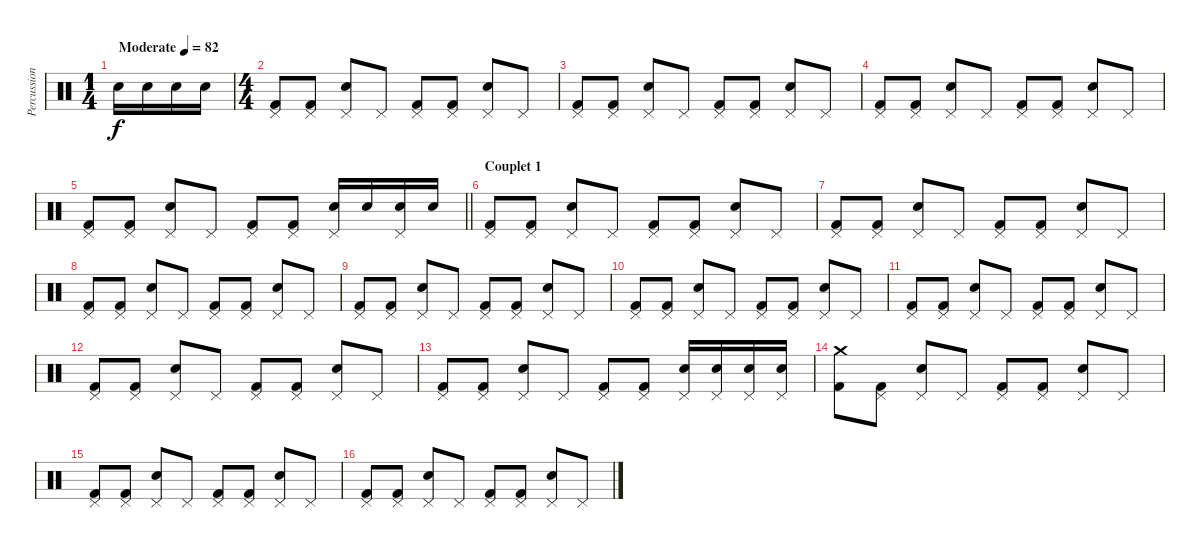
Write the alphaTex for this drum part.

\track ("Percussions" "Percussion") {instrument percussion}
\staff
\articulation defaults
\ts (1 4)
\tempo (82 "Moderate")
\clef neutral
\ks c "Electric Snare (hit)".16{dy f} "Electric Snare (hit)".16 "Electric Snare (hit)".16 "Electric Snare (hit)".16
|
\ts (4 4)
("Pedal Hi-Hat (hit)" "Kick (hit) 2").8 ("Pedal Hi-Hat (hit)" "Kick (hit) 2").8 ("Pedal Hi-Hat (hit)" "Electric Snare (hit)").8 "Pedal Hi-Hat (hit)".8 ("Pedal Hi-Hat (hit)" "Kick (hit) 2").8 ("Pedal Hi-Hat (hit)" "Kick (hit) 2").8 ("Pedal Hi-Hat (hit)" "Electric Snare (hit)").8 "Pedal Hi-Hat (hit)".8 |
("Pedal Hi-Hat (hit)" "Kick (hit) 2").8 ("Pedal Hi-Hat (hit)" "Kick (hit) 2").8 ("Pedal Hi-Hat (hit)" "Electric Snare (hit)").8 "Pedal Hi-Hat (hit)".8 ("Pedal Hi-Hat (hit)" "Kick (hit) 2").8 ("Pedal Hi-Hat (hit)" "Kick (hit) 2").8 ("Pedal Hi-Hat (hit)" "Electric Snare (hit)").8 "Pedal Hi-Hat (hit)".8 |
("Pedal Hi-Hat (hit)" "Kick (hit) 2").8 ("Pedal Hi-Hat (hit)" "Kick (hit) 2").8 ("Pedal Hi-Hat (hit)" "Electric Snare (hit)").8 "Pedal Hi-Hat (hit)".8 ("Pedal Hi-Hat (hit)" "Kick (hit) 2").8 ("Pedal Hi-Hat (hit)" "Kick (hit) 2").8 ("Pedal Hi-Hat (hit)" "Electric Snare (hit)").8 "Pedal Hi-Hat (hit)".8 |
\barLineRight lightlight
("Pedal Hi-Hat (hit)" "Kick (hit) 2").8 ("Pedal Hi-Hat (hit)" "Kick (hit) 2").8 ("Pedal Hi-Hat (hit)" "Electric Snare (hit)").8 "Pedal Hi-Hat (hit)".8 ("Pedal Hi-Hat (hit)" "Kick (hit) 2").8 ("Pedal Hi-Hat (hit)" "Kick (hit) 2").8 ("Pedal Hi-Hat (hit)" "Electric Snare (hit)").16 "Electric Snare (hit)".16 ("Pedal Hi-Hat (hit)" "Electric Snare (hit)").16 "Electric Snare (hit)".16 |
\section ("" "Couplet 1")
("Pedal Hi-Hat (hit)" "Kick (hit) 2").8 ("Pedal Hi-Hat (hit)" "Kick (hit) 2").8 ("Pedal Hi-Hat (hit)" "Electric Snare (hit)").8 "Pedal Hi-Hat (hit)".8 ("Pedal Hi-Hat (hit)" "Kick (hit) 2").8 ("Pedal Hi-Hat (hit)" "Kick (hit) 2").8 ("Pedal Hi-Hat (hit)" "Electric Snare (hit)").8 "Pedal Hi-Hat (hit)".8 |
("Pedal Hi-Hat (hit)" "Kick (hit) 2").8 ("Pedal Hi-Hat (hit)" "Kick (hit) 2").8 ("Pedal Hi-Hat (hit)" "Electric Snare (hit)").8 "Pedal Hi-Hat (hit)".8 ("Pedal Hi-Hat (hit)" "Kick (hit) 2").8 ("Pedal Hi-Hat (hit)" "Kick (hit) 2").8 ("Pedal Hi-Hat (hit)" "Electric Snare (hit)").8 "Pedal Hi-Hat (hit)".8 |
("Pedal Hi-Hat (hit)" "Kick (hit) 2").8 ("Pedal Hi-Hat (hit)" "Kick (hit) 2").8 ("Pedal Hi-Hat (hit)" "Electric Snare (hit)").8 "Pedal Hi-Hat (hit)".8 ("Pedal Hi-Hat (hit)" "Kick (hit) 2").8 ("Pedal Hi-Hat (hit)" "Kick (hit) 2").8 ("Pedal Hi-Hat (hit)" "Electric Snare (hit)").8 "Pedal Hi-Hat (hit)".8 |
("Pedal Hi-Hat (hit)" "Kick (hit) 2").8 ("Pedal Hi-Hat (hit)" "Kick (hit) 2").8 ("Pedal Hi-Hat (hit)" "Electric Snare (hit)").8 "Pedal Hi-Hat (hit)".8 ("Pedal Hi-Hat (hit)" "Kick (hit) 2").8 ("Pedal Hi-Hat (hit)" "Kick (hit) 2").8 ("Pedal Hi-Hat (hit)" "Electric Snare (hit)").8 "Pedal Hi-Hat (hit)".8 |
("Pedal Hi-Hat (hit)" "Kick (hit) 2").8 ("Pedal Hi-Hat (hit)" "Kick (hit) 2").8 ("Pedal Hi-Hat (hit)" "Electric Snare (hit)").8 "Pedal Hi-Hat (hit)".8 ("Pedal Hi-Hat (hit)" "Kick (hit) 2").8 ("Pedal Hi-Hat (hit)" "Kick (hit) 2").8 ("Pedal Hi-Hat (hit)" "Electric Snare (hit)").8 "Pedal Hi-Hat (hit)".8 |
("Pedal Hi-Hat (hit)" "Kick (hit) 2").8 ("Pedal Hi-Hat (hit)" "Kick (hit) 2").8 ("Pedal Hi-Hat (hit)" "Electric Snare (hit)").8 "Pedal Hi-Hat (hit)".8 ("Pedal Hi-Hat (hit)" "Kick (hit) 2").8 ("Pedal Hi-Hat (hit)" "Kick (hit) 2").8 ("Pedal Hi-Hat (hit)" "Electric Snare (hit)").8 "Pedal Hi-Hat (hit)".8 |
("Pedal Hi-Hat (hit)" "Kick (hit) 2").8 ("Pedal Hi-Hat (hit)" "Kick (hit) 2").8 ("Pedal Hi-Hat (hit)" "Electric Snare (hit)").8 "Pedal Hi-Hat (hit)".8 ("Pedal Hi-Hat (hit)" "Kick (hit) 2").8 ("Pedal Hi-Hat (hit)" "Kick (hit) 2").8 ("Pedal Hi-Hat (hit)" "Electric Snare (hit)").8 "Pedal Hi-Hat (hit)".8 |
("Pedal Hi-Hat (hit)" "Kick (hit) 2").8 ("Pedal Hi-Hat (hit)" "Kick (hit) 2").8 ("Pedal Hi-Hat (hit)" "Electric Snare (hit)").8 "Pedal Hi-Hat (hit)".8 ("Pedal Hi-Hat (hit)" "Kick (hit) 2").8 ("Pedal Hi-Hat (hit)" "Kick (hit) 2").8 ("Pedal Hi-Hat (hit)" "Electric Snare (hit)").16 ("Pedal Hi-Hat (hit)" "Electric Snare (hit)").16 ("Pedal Hi-Hat (hit)" "Electric Snare (hit)").16 ("Pedal Hi-Hat (hit)" "Electric Snare (hit)").16 |
("Crash medium (hit)" "Kick (hit) 2").8 ("Pedal Hi-Hat (hit)" "Kick (hit) 2").8 ("Pedal Hi-Hat (hit)" "Electric Snare (hit)").8 "Pedal Hi-Hat (hit)".8 ("Pedal Hi-Hat (hit)" "Kick (hit) 2").8 ("Pedal Hi-Hat (hit)" "Kick (hit) 2").8 ("Pedal Hi-Hat (hit)" "Electric Snare (hit)").8 "Pedal Hi-Hat (hit)".8 |
("Pedal Hi-Hat (hit)" "Kick (hit) 2").8 ("Pedal Hi-Hat (hit)" "Kick (hit) 2").8 ("Pedal Hi-Hat (hit)" "Electric Snare (hit)").8 "Pedal Hi-Hat (hit)".8 ("Pedal Hi-Hat (hit)" "Kick (hit) 2").8 ("Pedal Hi-Hat (hit)" "Kick (hit) 2").8 ("Pedal Hi-Hat (hit)" "Electric Snare (hit)").8 "Pedal Hi-Hat (hit)".8 |
("Pedal Hi-Hat (hit)" "Kick (hit) 2").8 ("Pedal Hi-Hat (hit)" "Kick (hit) 2").8 ("Pedal Hi-Hat (hit)" "Electric Snare (hit)").8 "Pedal Hi-Hat (hit)".8 ("Pedal Hi-Hat (hit)" "Kick (hit) 2").8 ("Pedal Hi-Hat (hit)" "Kick (hit) 2").8 ("Pedal Hi-Hat (hit)" "Electric Snare (hit)").8 "Pedal Hi-Hat (hit)".8
